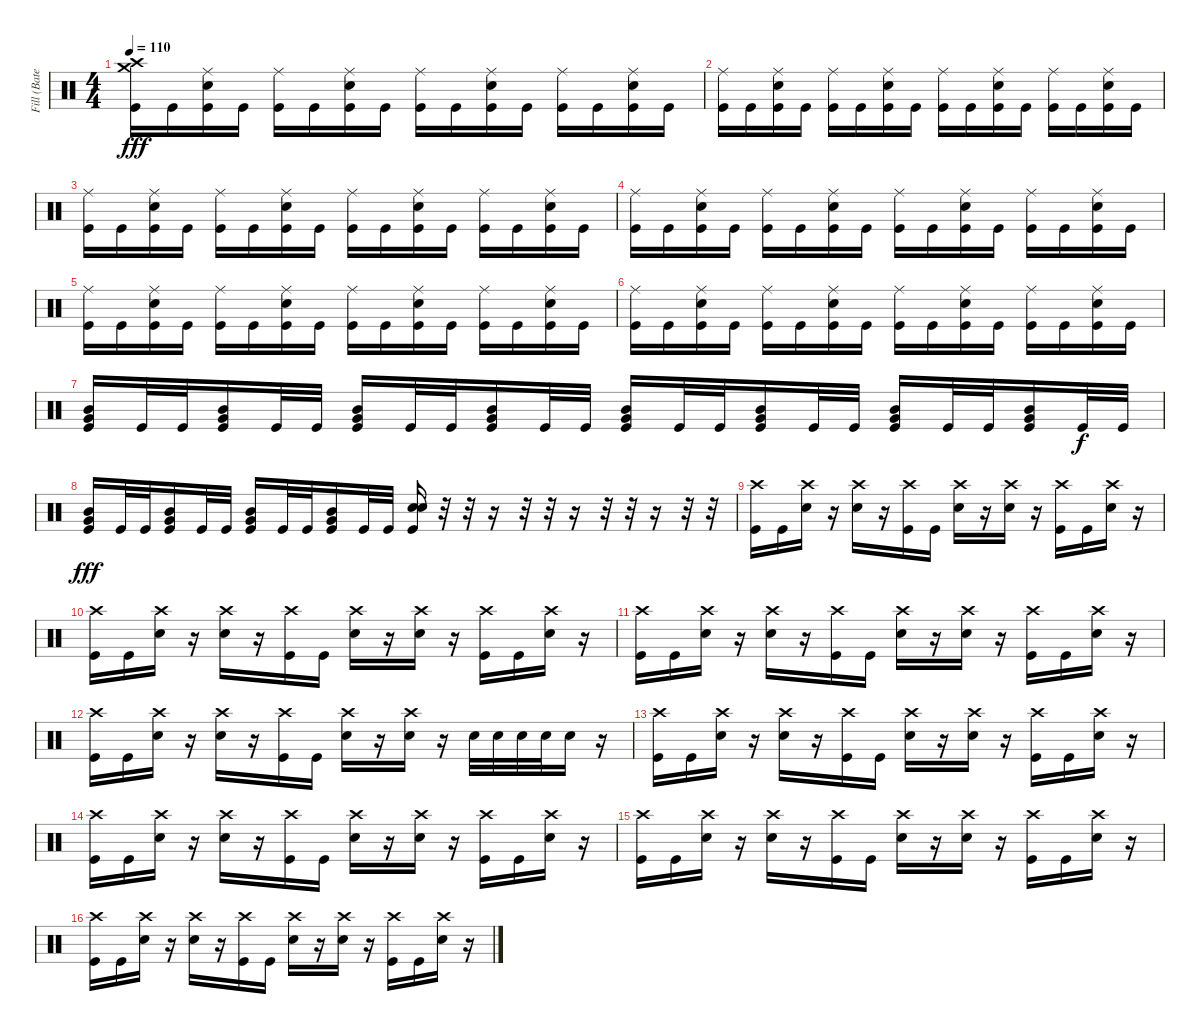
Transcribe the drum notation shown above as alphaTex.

\track ("Fill (Bateria)" "Fill (Bate") {instrument percussion}
\staff {score}
\articulation defaults
\ts (4 4)
\tempo 110
\clef neutral
\ks c
("Kick (hit)" "Crash high (hit)" "Crash medium (hit)").16{dy fff} "Kick (hit)".16 ("Electric Snare (hit)" "Ride (middle)" "Kick (hit)").16 "Kick (hit)".16 ("Ride (middle)" "Kick (hit)").16 "Kick (hit)".16 ("Electric Snare (hit)" "Ride (middle)" "Kick (hit)").16 "Kick (hit)".16 ("Ride (middle)" "Kick (hit)").16 "Kick (hit)".16 ("Electric Snare (hit)" "Ride (middle)" "Kick (hit)").16 "Kick (hit)".16 ("Ride (middle)" "Kick (hit)").16 "Kick (hit)".16 ("Electric Snare (hit)" "Ride (middle)" "Kick (hit)").16 "Kick (hit)".16 |
("Ride (middle)" "Kick (hit)").16 "Kick (hit)".16 ("Electric Snare (hit)" "Ride (middle)" "Kick (hit)").16 "Kick (hit)".16 ("Ride (middle)" "Kick (hit)").16 "Kick (hit)".16 ("Electric Snare (hit)" "Ride (middle)" "Kick (hit)").16 "Kick (hit)".16 ("Ride (middle)" "Kick (hit)").16 "Kick (hit)".16 ("Electric Snare (hit)" "Ride (middle)" "Kick (hit)").16 "Kick (hit)".16 ("Ride (middle)" "Kick (hit)").16 "Kick (hit)".16 ("Electric Snare (hit)" "Ride (middle)" "Kick (hit)").16 "Kick (hit)".16 |
("Ride (middle)" "Kick (hit)").16 "Kick (hit)".16 ("Electric Snare (hit)" "Ride (middle)" "Kick (hit)").16 "Kick (hit)".16 ("Ride (middle)" "Kick (hit)").16 "Kick (hit)".16 ("Electric Snare (hit)" "Ride (middle)" "Kick (hit)").16 "Kick (hit)".16 ("Ride (middle)" "Kick (hit)").16 "Kick (hit)".16 ("Electric Snare (hit)" "Ride (middle)" "Kick (hit)").16 "Kick (hit)".16 ("Ride (middle)" "Kick (hit)").16 "Kick (hit)".16 ("Electric Snare (hit)" "Ride (middle)" "Kick (hit)").16 "Kick (hit)".16 |
("Ride (middle)" "Kick (hit)").16 "Kick (hit)".16 ("Electric Snare (hit)" "Ride (middle)" "Kick (hit)").16 "Kick (hit)".16 ("Ride (middle)" "Kick (hit)").16 "Kick (hit)".16 ("Electric Snare (hit)" "Ride (middle)" "Kick (hit)").16 "Kick (hit)".16 ("Ride (middle)" "Kick (hit)").16 "Kick (hit)".16 ("Electric Snare (hit)" "Ride (middle)" "Kick (hit)").16 "Kick (hit)".16 ("Ride (middle)" "Kick (hit)").16 "Kick (hit)".16 ("Electric Snare (hit)" "Ride (middle)" "Kick (hit)").16 "Kick (hit)".16 |
("Ride (middle)" "Kick (hit)").16 "Kick (hit)".16 ("Electric Snare (hit)" "Ride (middle)" "Kick (hit)").16 "Kick (hit)".16 ("Ride (middle)" "Kick (hit)").16 "Kick (hit)".16 ("Electric Snare (hit)" "Ride (middle)" "Kick (hit)").16 "Kick (hit)".16 ("Ride (middle)" "Kick (hit)").16 "Kick (hit)".16 ("Electric Snare (hit)" "Ride (middle)" "Kick (hit)").16 "Kick (hit)".16 ("Ride (middle)" "Kick (hit)").16 "Kick (hit)".16 ("Electric Snare (hit)" "Ride (middle)" "Kick (hit)").16 "Kick (hit)".16 |
("Ride (middle)" "Kick (hit)").16 "Kick (hit)".16 ("Electric Snare (hit)" "Ride (middle)" "Kick (hit)").16 "Kick (hit)".16 ("Ride (middle)" "Kick (hit)").16 "Kick (hit)".16 ("Electric Snare (hit)" "Ride (middle)" "Kick (hit)").16 "Kick (hit)".16 ("Ride (middle)" "Kick (hit)").16 "Kick (hit)".16 ("Electric Snare (hit)" "Ride (middle)" "Kick (hit)").16 "Kick (hit)".16 ("Ride (middle)" "Kick (hit)").16 "Kick (hit)".16 ("Electric Snare (hit)" "Ride (middle)" "Kick (hit)").16 "Kick (hit)".16 |
("Mid Tom (hit)" "Very Low Tom (hit)" "Kick (hit)").16 "Kick (hit)".32 "Kick (hit)".32 ("Mid Tom (hit)" "Very Low Tom (hit)" "Kick (hit)").16 "Kick (hit)".32 "Kick (hit)".32 ("Mid Tom (hit)" "Very Low Tom (hit)" "Kick (hit)").16 "Kick (hit)".32 "Kick (hit)".32 ("Mid Tom (hit)" "Very Low Tom (hit)" "Kick (hit)").16 "Kick (hit)".32 "Kick (hit)".32 ("Mid Tom (hit)" "Very Low Tom (hit)" "Kick (hit)").16 "Kick (hit)".32 "Kick (hit)".32 ("Mid Tom (hit)" "Very Low Tom (hit)" "Kick (hit)").16 "Kick (hit)".32 "Kick (hit)".32 ("Mid Tom (hit)" "Very Low Tom (hit)" "Kick (hit)").16 "Kick (hit)".32 "Kick (hit)".32 ("Mid Tom (hit)" "Very Low Tom (hit)" "Kick (hit)").16 "Kick (hit)".32{dy f} "Kick (hit)".32 |
("Mid Tom (hit)" "Very Low Tom (hit)" "Kick (hit)").16{dy fff} "Kick (hit)".32 "Kick (hit)".32 ("Mid Tom (hit)" "Very Low Tom (hit)" "Kick (hit)").16 "Kick (hit)".32 "Kick (hit)".32 ("Mid Tom (hit)" "Very Low Tom (hit)" "Kick (hit)").16 "Kick (hit)".32 "Kick (hit)".32 ("Mid Tom (hit)" "Very Low Tom (hit)" "Kick (hit)").16 "Kick (hit)".32 "Kick (hit)".32 ("Electric Snare (hit)" "Electric Snare (hit)" "Kick (hit)").16 r.32 r.32 r.16 r.32 r.32 r.16 r.32 r.32 r.16 r.32 r.32 |
("Kick (hit)" "Crash high (hit)").16 "Kick (hit)".16 ("Electric Snare (hit)" "Crash high (hit)").16 r.16 ("Electric Snare (hit)" "Crash high (hit)").16 r.16 ("Kick (hit)" "Crash high (hit)").16 "Kick (hit)".16 ("Electric Snare (hit)" "Crash high (hit)").16 r.16 ("Electric Snare (hit)" "Crash high (hit)").16 r.16 ("Kick (hit)" "Crash high (hit)").16 "Kick (hit)".16 ("Electric Snare (hit)" "Crash high (hit)").16 r.16 |
("Kick (hit)" "Crash high (hit)").16 "Kick (hit)".16 ("Electric Snare (hit)" "Crash high (hit)").16 r.16 ("Electric Snare (hit)" "Crash high (hit)").16 r.16 ("Kick (hit)" "Crash high (hit)").16 "Kick (hit)".16 ("Electric Snare (hit)" "Crash high (hit)").16 r.16 ("Electric Snare (hit)" "Crash high (hit)").16 r.16 ("Kick (hit)" "Crash high (hit)").16 "Kick (hit)".16 ("Electric Snare (hit)" "Crash high (hit)").16 r.16 |
("Kick (hit)" "Crash high (hit)").16 "Kick (hit)".16 ("Electric Snare (hit)" "Crash high (hit)").16 r.16 ("Electric Snare (hit)" "Crash high (hit)").16 r.16 ("Kick (hit)" "Crash high (hit)").16 "Kick (hit)".16 ("Electric Snare (hit)" "Crash high (hit)").16 r.16 ("Electric Snare (hit)" "Crash high (hit)").16 r.16 ("Kick (hit)" "Crash high (hit)").16 "Kick (hit)".16 ("Electric Snare (hit)" "Crash high (hit)").16 r.16 |
("Kick (hit)" "Crash high (hit)").16 "Kick (hit)".16 ("Electric Snare (hit)" "Crash high (hit)").16 r.16 ("Electric Snare (hit)" "Crash high (hit)").16 r.16 ("Kick (hit)" "Crash high (hit)").16 "Kick (hit)".16 ("Electric Snare (hit)" "Crash high (hit)").16 r.16 ("Electric Snare (hit)" "Crash high (hit)").16 r.16 "Electric Snare (hit)".32 "Electric Snare (hit)".32 "Electric Snare (hit)".32 "Electric Snare (hit)".32 "Electric Snare (hit)".16 r.16 |
("Kick (hit)" "Crash high (hit)").16 "Kick (hit)".16 ("Electric Snare (hit)" "Crash high (hit)").16 r.16 ("Electric Snare (hit)" "Crash high (hit)").16 r.16 ("Kick (hit)" "Crash high (hit)").16 "Kick (hit)".16 ("Electric Snare (hit)" "Crash high (hit)").16 r.16 ("Electric Snare (hit)" "Crash high (hit)").16 r.16 ("Kick (hit)" "Crash high (hit)").16 "Kick (hit)".16 ("Electric Snare (hit)" "Crash high (hit)").16 r.16 |
("Kick (hit)" "Crash high (hit)").16 "Kick (hit)".16 ("Electric Snare (hit)" "Crash high (hit)").16 r.16 ("Electric Snare (hit)" "Crash high (hit)").16 r.16 ("Kick (hit)" "Crash high (hit)").16 "Kick (hit)".16 ("Electric Snare (hit)" "Crash high (hit)").16 r.16 ("Electric Snare (hit)" "Crash high (hit)").16 r.16 ("Kick (hit)" "Crash high (hit)").16 "Kick (hit)".16 ("Electric Snare (hit)" "Crash high (hit)").16 r.16 |
("Kick (hit)" "Crash high (hit)").16 "Kick (hit)".16 ("Electric Snare (hit)" "Crash high (hit)").16 r.16 ("Electric Snare (hit)" "Crash high (hit)").16 r.16 ("Kick (hit)" "Crash high (hit)").16 "Kick (hit)".16 ("Electric Snare (hit)" "Crash high (hit)").16 r.16 ("Electric Snare (hit)" "Crash high (hit)").16 r.16 ("Kick (hit)" "Crash high (hit)").16 "Kick (hit)".16 ("Electric Snare (hit)" "Crash high (hit)").16 r.16 |
("Kick (hit)" "Crash high (hit)").16 "Kick (hit)".16 ("Electric Snare (hit)" "Crash high (hit)").16 r.16 ("Electric Snare (hit)" "Crash high (hit)").16 r.16 ("Kick (hit)" "Crash high (hit)").16 "Kick (hit)".16 ("Electric Snare (hit)" "Crash high (hit)").16 r.16 ("Electric Snare (hit)" "Crash high (hit)").16 r.16 ("Kick (hit)" "Crash high (hit)").16 "Kick (hit)".16 ("Electric Snare (hit)" "Crash high (hit)").16 r.16
